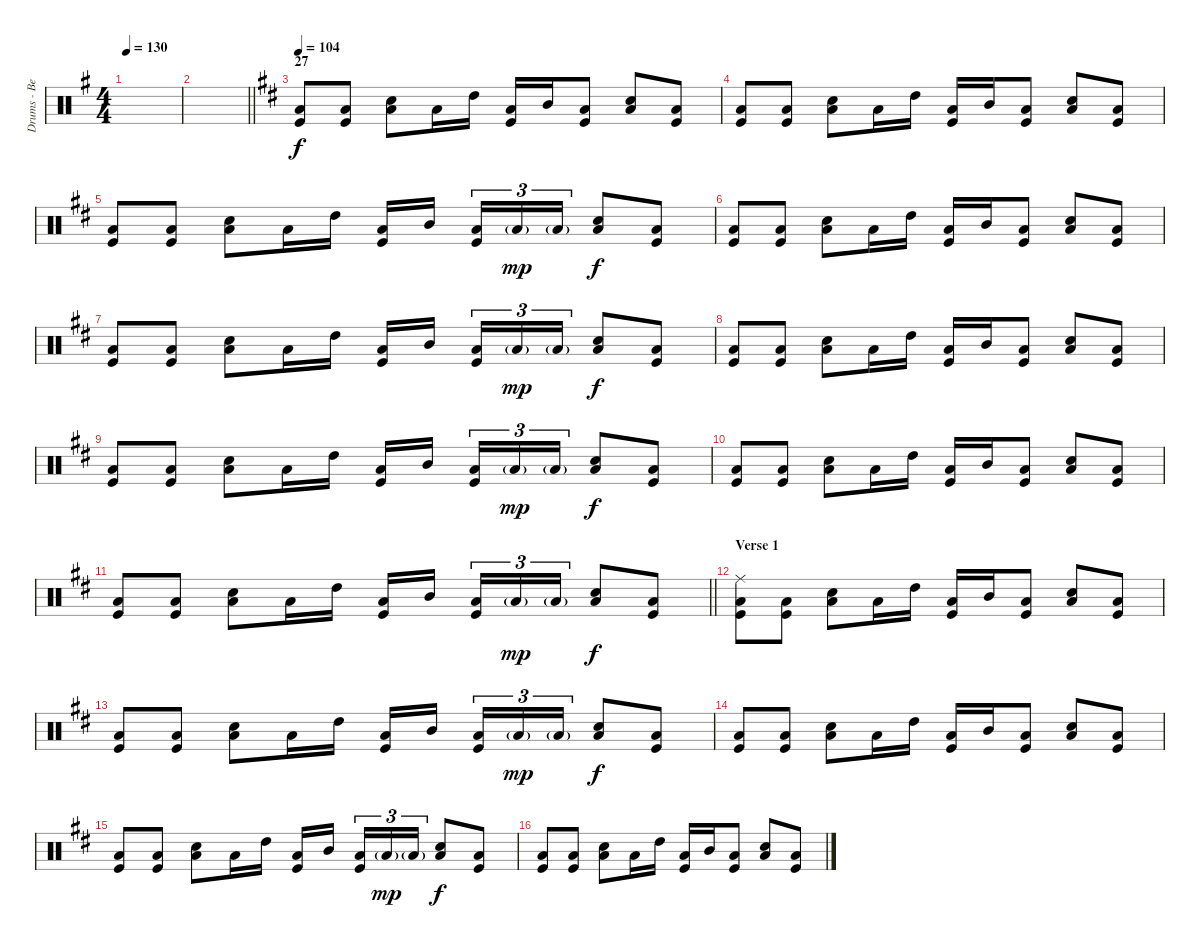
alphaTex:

\track ("Drums - Ben Johnston" "Drums - Be") {instrument percussion}
\staff {score}
\articulation defaults
\ts (4 4)
\tempo 130
\clef neutral
\ks eminor
|
\barLineRight lightlight
|
\section ("" "27")
\tempo 104
\ks d
("Low Tom (hit)" "Kick (hit)").8{volume 13} ("Low Tom (hit)" "Kick (hit)").8 ("Low Tom (hit)" "Snare (hit) 2").8 "Low Tom (hit)".16 "High Tom (hit)".16 ("Low Tom (hit)" "Kick (hit)").16 "Mid Tom (hit)".16 ("Low Tom (hit)" "Kick (hit)").8 ("Low Tom (hit)" "Snare (hit) 2").8 ("Low Tom (hit)" "Kick (hit)").8 |
("Low Tom (hit)" "Kick (hit)").8 ("Low Tom (hit)" "Kick (hit)").8 ("Low Tom (hit)" "Snare (hit) 2").8 "Low Tom (hit)".16 "High Tom (hit)".16 ("Low Tom (hit)" "Kick (hit)").16 "Mid Tom (hit)".16 ("Low Tom (hit)" "Kick (hit)").8 ("Low Tom (hit)" "Snare (hit) 2").8 ("Low Tom (hit)" "Kick (hit)").8 |
("Low Tom (hit)" "Kick (hit)").8 ("Low Tom (hit)" "Kick (hit)").8 ("Low Tom (hit)" "Snare (hit) 2").8 "Low Tom (hit)".16 "High Tom (hit)".16 ("Low Tom (hit)" "Kick (hit)").16 "Mid Tom (hit)".16{beam splitsecondary} ("Low Tom (hit)" "Kick (hit)").16{tu (3 2)} "Low Tom (hit)"{g}.16{tu (3 2) dy mp} "Low Tom (hit)"{g}.16{tu (3 2)} ("Low Tom (hit)" "Snare (hit) 2").8{dy f} ("Low Tom (hit)" "Kick (hit)").8 |
("Low Tom (hit)" "Kick (hit)").8 ("Low Tom (hit)" "Kick (hit)").8 ("Low Tom (hit)" "Snare (hit) 2").8 "Low Tom (hit)".16 "High Tom (hit)".16 ("Low Tom (hit)" "Kick (hit)").16 "Mid Tom (hit)".16 ("Low Tom (hit)" "Kick (hit)").8 ("Low Tom (hit)" "Snare (hit) 2").8 ("Low Tom (hit)" "Kick (hit)").8 |
("Low Tom (hit)" "Kick (hit)").8 ("Low Tom (hit)" "Kick (hit)").8 ("Low Tom (hit)" "Snare (hit) 2").8 "Low Tom (hit)".16 "High Tom (hit)".16 ("Low Tom (hit)" "Kick (hit)").16 "Mid Tom (hit)".16{beam splitsecondary} ("Low Tom (hit)" "Kick (hit)").16{tu (3 2)} "Low Tom (hit)"{g}.16{tu (3 2) dy mp} "Low Tom (hit)"{g}.16{tu (3 2)} ("Low Tom (hit)" "Snare (hit) 2").8{dy f} ("Low Tom (hit)" "Kick (hit)").8 |
("Low Tom (hit)" "Kick (hit)").8 ("Low Tom (hit)" "Kick (hit)").8 ("Low Tom (hit)" "Snare (hit) 2").8 "Low Tom (hit)".16 "High Tom (hit)".16 ("Low Tom (hit)" "Kick (hit)").16 "Mid Tom (hit)".16 ("Low Tom (hit)" "Kick (hit)").8 ("Low Tom (hit)" "Snare (hit) 2").8 ("Low Tom (hit)" "Kick (hit)").8 |
("Low Tom (hit)" "Kick (hit)").8 ("Low Tom (hit)" "Kick (hit)").8 ("Low Tom (hit)" "Snare (hit) 2").8 "Low Tom (hit)".16 "High Tom (hit)".16 ("Low Tom (hit)" "Kick (hit)").16 "Mid Tom (hit)".16{beam splitsecondary} ("Low Tom (hit)" "Kick (hit)").16{tu (3 2)} "Low Tom (hit)"{g}.16{tu (3 2) dy mp} "Low Tom (hit)"{g}.16{tu (3 2)} ("Low Tom (hit)" "Snare (hit) 2").8{dy f} ("Low Tom (hit)" "Kick (hit)").8 |
("Low Tom (hit)" "Kick (hit)").8 ("Low Tom (hit)" "Kick (hit)").8 ("Low Tom (hit)" "Snare (hit) 2").8 "Low Tom (hit)".16 "High Tom (hit)".16 ("Low Tom (hit)" "Kick (hit)").16 "Mid Tom (hit)".16 ("Low Tom (hit)" "Kick (hit)").8 ("Low Tom (hit)" "Snare (hit) 2").8 ("Low Tom (hit)" "Kick (hit)").8 |
\barLineRight lightlight
("Low Tom (hit)" "Kick (hit)").8 ("Low Tom (hit)" "Kick (hit)").8 ("Low Tom (hit)" "Snare (hit) 2").8 "Low Tom (hit)".16 "High Tom (hit)".16 ("Low Tom (hit)" "Kick (hit)").16 "Mid Tom (hit)".16{beam splitsecondary} ("Low Tom (hit)" "Kick (hit)").16{tu (3 2)} "Low Tom (hit)"{g}.16{tu (3 2) dy mp} "Low Tom (hit)"{g}.16{tu (3 2)} ("Low Tom (hit)" "Snare (hit) 2").8{dy f} ("Low Tom (hit)" "Kick (hit)").8 |
\section ("" "Verse 1")
("Ride (middle)" "Low Tom (hit)" "Kick (hit)").8 ("Low Tom (hit)" "Kick (hit)").8 ("Low Tom (hit)" "Snare (hit) 2").8 "Low Tom (hit)".16 "High Tom (hit)".16 ("Low Tom (hit)" "Kick (hit)").16 "Mid Tom (hit)".16 ("Low Tom (hit)" "Kick (hit)").8 ("Low Tom (hit)" "Snare (hit) 2").8 ("Low Tom (hit)" "Kick (hit)").8 |
("Low Tom (hit)" "Kick (hit)").8 ("Low Tom (hit)" "Kick (hit)").8 ("Low Tom (hit)" "Snare (hit) 2").8 "Low Tom (hit)".16 "High Tom (hit)".16 ("Low Tom (hit)" "Kick (hit)").16 "Mid Tom (hit)".16{beam splitsecondary} ("Low Tom (hit)" "Kick (hit)").16{tu (3 2)} "Low Tom (hit)"{g}.16{tu (3 2) dy mp} "Low Tom (hit)"{g}.16{tu (3 2)} ("Low Tom (hit)" "Snare (hit) 2").8{dy f} ("Low Tom (hit)" "Kick (hit)").8 |
("Low Tom (hit)" "Kick (hit)").8 ("Low Tom (hit)" "Kick (hit)").8 ("Low Tom (hit)" "Snare (hit) 2").8 "Low Tom (hit)".16 "High Tom (hit)".16 ("Low Tom (hit)" "Kick (hit)").16 "Mid Tom (hit)".16 ("Low Tom (hit)" "Kick (hit)").8 ("Low Tom (hit)" "Snare (hit) 2").8 ("Low Tom (hit)" "Kick (hit)").8 |
("Low Tom (hit)" "Kick (hit)").8 ("Low Tom (hit)" "Kick (hit)").8 ("Low Tom (hit)" "Snare (hit) 2").8 "Low Tom (hit)".16 "High Tom (hit)".16 ("Low Tom (hit)" "Kick (hit)").16 "Mid Tom (hit)".16{beam splitsecondary} ("Low Tom (hit)" "Kick (hit)").16{tu (3 2)} "Low Tom (hit)"{g}.16{tu (3 2) dy mp} "Low Tom (hit)"{g}.16{tu (3 2)} ("Low Tom (hit)" "Snare (hit) 2").8{dy f} ("Low Tom (hit)" "Kick (hit)").8 |
("Low Tom (hit)" "Kick (hit)").8 ("Low Tom (hit)" "Kick (hit)").8 ("Low Tom (hit)" "Snare (hit) 2").8 "Low Tom (hit)".16 "High Tom (hit)".16 ("Low Tom (hit)" "Kick (hit)").16 "Mid Tom (hit)".16 ("Low Tom (hit)" "Kick (hit)").8 ("Low Tom (hit)" "Snare (hit) 2").8 ("Low Tom (hit)" "Kick (hit)").8
